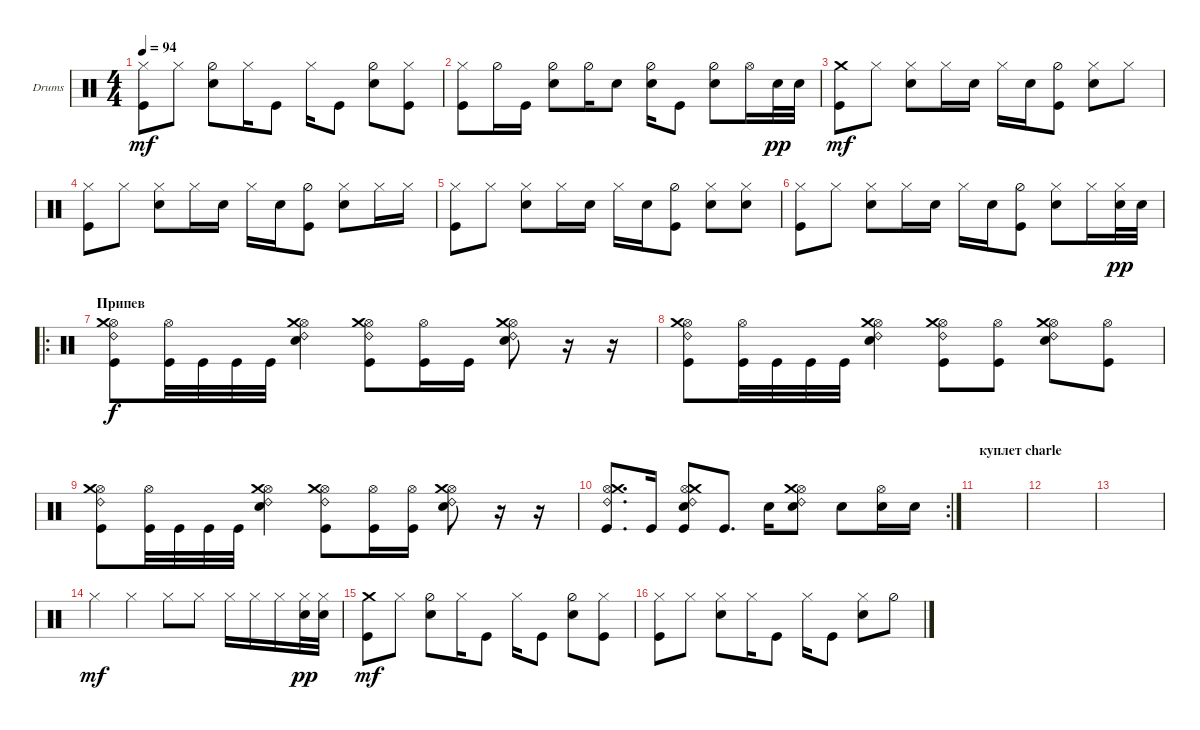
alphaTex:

\defaultSystemsLayout 4
\bracketExtendMode groupsimilarinstruments
\firstSystemTrackNameOrientation horizontal
\otherSystemsTrackNameOrientation horizontal
\track ("Drumkit" "Drums") {instrument percussion}
\staff {score}
\articulation defaults
\ts (4 4)
\tempo 94
\clef neutral
\ks c
("Kick (hit)" "Hi-Hat (closed)").8{dy mf} "Hi-Hat (closed)".8 ("Snare (hit) 2" "Hi-Hat (half)").8 "Hi-Hat (closed)".16 "Kick (hit)".8 "Hi-Hat (closed)".16 "Kick (hit)".8 ("Snare (hit) 2" "Hi-Hat (half)").8 ("Kick (hit)" "Hi-Hat (closed)").8 |
("Kick (hit)" "Hi-Hat (closed)").8 "Hi-Hat (half)".16 "Kick (hit)".16 ("Snare (hit) 2" "Hi-Hat (half)").8 "Hi-Hat (half)".16 "Snare (hit) 2".8 ("Snare (hit) 2" "Hi-Hat (half)").16 "Kick (hit)".8 ("Snare (hit) 2" "Hi-Hat (half)").8 "Hi-Hat (open)".16 "Snare (hit) 2".32{dy pp} "Snare (hit) 2".32 |
("Kick (hit)" "Crash medium (hit)").8{dy mf} "Hi-Hat (closed)".8 ("Snare (hit) 2" "Hi-Hat (closed)").8 "Hi-Hat (closed)".16 "Snare (hit) 2".16 "Hi-Hat (closed)".16 "Snare (hit) 2".16 ("Kick (hit)" "Hi-Hat (half)").8 ("Snare (hit) 2" "Hi-Hat (closed)").8 "Hi-Hat (closed)".8 |
("Kick (hit)" "Hi-Hat (closed)").8 "Hi-Hat (closed)".8 ("Snare (hit) 2" "Hi-Hat (closed)").8 "Hi-Hat (closed)".16 "Snare (hit) 2".16 "Hi-Hat (closed)".16 "Snare (hit) 2".16 ("Kick (hit)" "Hi-Hat (half)").8 ("Snare (hit) 2" "Hi-Hat (closed)").8 "Hi-Hat (closed)".16 "Hi-Hat (closed)".16 |
("Kick (hit)" "Hi-Hat (closed)").8 "Hi-Hat (closed)".8 ("Snare (hit) 2" "Hi-Hat (closed)").8 "Hi-Hat (closed)".16 "Snare (hit) 2".16 "Hi-Hat (closed)".16 "Snare (hit) 2".16 ("Kick (hit)" "Hi-Hat (half)").8 ("Snare (hit) 2" "Hi-Hat (closed)").8 ("Hi-Hat (closed)" "Snare (hit) 2").8 |
("Kick (hit)" "Hi-Hat (closed)").8 "Hi-Hat (closed)".8 ("Snare (hit) 2" "Hi-Hat (closed)").8 "Hi-Hat (closed)".16 "Snare (hit) 2".16 "Hi-Hat (closed)".16 "Snare (hit) 2".16 ("Kick (hit)" "Hi-Hat (half)").8 ("Snare (hit) 2" "Hi-Hat (closed)").8 "Hi-Hat (closed)".16 ("Hi-Hat (closed)" "Snare (hit) 2").32{dy pp} "Snare (hit) 2".32 |
\ro
\section ("" "Припев")
("Kick (hit)" "Hi-Hat (open)" "Crash medium (hit)" "Ride (bell) 2").8{dy f} ("Kick (hit)" "Hi-Hat (open)").32 "Kick (hit)".32 "Kick (hit)".32 "Kick (hit)".32 ("Snare (hit) 2" "Ride (bell) 2" "Hi-Hat (open)" "Crash medium (hit)").4 ("Kick (hit)" "Ride (bell) 2" "Hi-Hat (open)" "Crash medium (hit)").8 ("Kick (hit)" "Hi-Hat (open)").16 "Kick (hit)".16 ("Snare (hit) 2" "Ride (bell) 2" "Hi-Hat (open)" "Crash medium (hit)").8 r.16 r.16 |
("Kick (hit)" "Hi-Hat (open)" "Crash medium (hit)" "Ride (bell) 2").8 ("Kick (hit)" "Hi-Hat (open)").32 "Kick (hit)".32 "Kick (hit)".32 "Kick (hit)".32 ("Snare (hit) 2" "Ride (bell) 2" "Hi-Hat (open)" "Crash medium (hit)").4 ("Kick (hit)" "Ride (bell) 2" "Hi-Hat (open)" "Crash medium (hit)").8 ("Kick (hit)" "Hi-Hat (open)").8 ("Snare (hit) 2" "Ride (bell) 2" "Hi-Hat (open)" "Crash medium (hit)").8 ("Kick (hit)" "Hi-Hat (open)").8 |
("Kick (hit)" "Hi-Hat (open)" "Crash medium (hit)" "Ride (bell) 2").8 ("Kick (hit)" "Hi-Hat (open)").32 "Kick (hit)".32 "Kick (hit)".32 "Kick (hit)".32 ("Snare (hit) 2" "Ride (bell) 2" "Hi-Hat (open)" "Crash medium (hit)").4 ("Kick (hit)" "Ride (bell) 2" "Hi-Hat (open)" "Crash medium (hit)").8 ("Kick (hit)" "Hi-Hat (open)").16 ("Kick (hit)" "Hi-Hat (open)").16 ("Snare (hit) 2" "Ride (bell) 2" "Hi-Hat (open)" "Crash medium (hit)").8 r.16 r.16 |
\rc 2
("Kick (hit)" "Ride (bell) 2" "Hi-Hat (open)" "Crash medium (hit)").8{d} "Kick (hit)".16 ("Kick (hit)" "Ride (bell) 2" "Hi-Hat (open)" "Crash medium (hit)" "Snare (hit) 2").8 "Kick (hit)".8{d} "Snare (hit) 2".16 ("Ride (bell) 2" "Hi-Hat (open)" "Crash medium (hit)" "Snare (hit) 2").8 "Snare (hit) 2".8 ("Snare (hit) 2" "Hi-Hat (open)").16 "Snare (hit) 2".16 |
\section ("" "куплет charle")
|
|
|
"Hi-Hat (closed)".4{dy mf} "Hi-Hat (closed)".4 "Hi-Hat (closed)".8 "Hi-Hat (closed)".8 "Hi-Hat (closed)".16 "Hi-Hat (closed)".16 "Hi-Hat (closed)".16 ("Hi-Hat (closed)" "Snare (hit) 2").32{dy pp} ("Hi-Hat (closed)" "Snare (hit) 2").32 |
("Kick (hit)" "Crash medium (hit)").8{dy mf} "Hi-Hat (closed)".8 ("Snare (hit) 2" "Hi-Hat (half)").8 "Hi-Hat (closed)".16 "Kick (hit)".8 "Hi-Hat (closed)".16 "Kick (hit)".8 ("Snare (hit) 2" "Hi-Hat (half)").8 ("Kick (hit)" "Hi-Hat (closed)").8 |
("Kick (hit)" "Hi-Hat (closed)").8 "Hi-Hat (closed)".8 ("Snare (hit) 2" "Hi-Hat (closed)").8 "Hi-Hat (closed)".16 "Kick (hit)".8 "Hi-Hat (closed)".16 "Kick (hit)".8 ("Snare (hit) 2" "Hi-Hat (closed)").8 "Hi-Hat (half)".8
